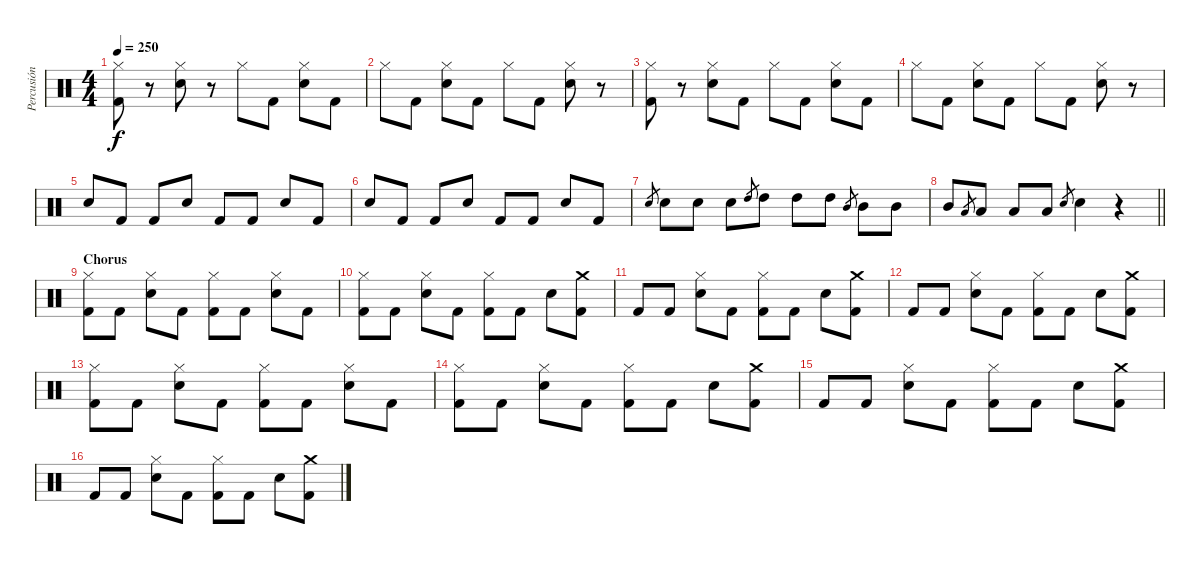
\track ("Percusión" "Percusión") {instrument percussion}
\staff {score}
\articulation defaults
\ts (4 4)
\tempo 250
\clef neutral
\ks c
("Hi-Hat (closed)" "Kick (hit) 2").8{dy f} r.8 ("Electric Snare (hit)" "Hi-Hat (closed)").8 r.8 "Hi-Hat (closed)".8 "Kick (hit) 2".8 ("Electric Snare (hit)" "Hi-Hat (closed)").8 "Kick (hit) 2".8 |
"Hi-Hat (closed)".8 "Kick (hit) 2".8 ("Electric Snare (hit)" "Hi-Hat (closed)").8 "Kick (hit) 2".8 "Hi-Hat (closed)".8 "Kick (hit) 2".8 ("Electric Snare (hit)" "Hi-Hat (closed)").8 r.8 |
("Hi-Hat (closed)" "Kick (hit) 2").8 r.8 ("Electric Snare (hit)" "Hi-Hat (closed)").8 "Kick (hit) 2".8 "Hi-Hat (closed)".8 "Kick (hit) 2".8 ("Electric Snare (hit)" "Hi-Hat (closed)").8 "Kick (hit) 2".8 |
"Hi-Hat (closed)".8 "Kick (hit) 2".8 ("Electric Snare (hit)" "Hi-Hat (closed)").8 "Kick (hit) 2".8 "Hi-Hat (closed)".8 "Kick (hit) 2".8 ("Electric Snare (hit)" "Hi-Hat (closed)").8 r.8 |
"Electric Snare (hit)".8 "Kick (hit) 2".8 "Kick (hit) 2".8 "Electric Snare (hit)".8 "Kick (hit) 2".8 "Kick (hit) 2".8 "Electric Snare (hit)".8 "Kick (hit) 2".8 |
"Electric Snare (hit)".8 "Kick (hit) 2".8 "Kick (hit) 2".8 "Electric Snare (hit)".8 "Kick (hit) 2".8 "Kick (hit) 2".8 "Electric Snare (hit)".8 "Kick (hit) 2".8 |
"Electric Snare (hit)".8{gr} "Electric Snare (hit)".8 "Electric Snare (hit)".8 "Electric Snare (hit)".8 "High Tom (hit)".8{gr} "High Tom (hit)".8 "High Tom (hit)".8 "High Tom (hit)".8 "Mid Tom (hit)".8{gr} "Mid Tom (hit)".8 "Mid Tom (hit)".8 |
\barLineRight lightlight "Mid Tom (hit)".8 "Low Tom (hit)".8{gr} "Low Tom (hit)".8 "Low Tom (hit)".8 "Low Tom (hit)".8 "Electric Snare (hit)".8{gr} "Electric Snare (hit)".4
r.4 |
\section ("" "Chorus")
("Hi-Hat (closed)" "Kick (hit) 2").8 "Kick (hit) 2".8 ("Electric Snare (hit)" "Hi-Hat (closed)").8 "Kick (hit) 2".8 ("Hi-Hat (closed)" "Kick (hit) 2").8 "Kick (hit) 2".8 ("Electric Snare (hit)" "Hi-Hat (closed)").8 "Kick (hit) 2".8 |
("Hi-Hat (closed)" "Kick (hit) 2").8 "Kick (hit) 2".8 ("Electric Snare (hit)" "Hi-Hat (closed)").8 "Kick (hit) 2".8 ("Hi-Hat (closed)" "Kick (hit) 2").8 "Kick (hit) 2".8 "Electric Snare (hit)".8 ("Crash medium (hit)" "Kick (hit) 2").8 |
"Kick (hit) 2".8 "Kick (hit) 2".8 ("Electric Snare (hit)" "Hi-Hat (closed)").8 "Kick (hit) 2".8 ("Hi-Hat (closed)" "Kick (hit) 2").8 "Kick (hit) 2".8 "Electric Snare (hit)".8 ("Crash medium (hit)" "Kick (hit) 2").8 |
"Kick (hit) 2".8 "Kick (hit) 2".8 ("Electric Snare (hit)" "Hi-Hat (closed)").8 "Kick (hit) 2".8 ("Hi-Hat (closed)" "Kick (hit) 2").8 "Kick (hit) 2".8 "Electric Snare (hit)".8 ("Crash medium (hit)" "Kick (hit) 2").8 |
("Hi-Hat (closed)" "Kick (hit) 2").8 "Kick (hit) 2".8 ("Electric Snare (hit)" "Hi-Hat (closed)").8 "Kick (hit) 2".8 ("Hi-Hat (closed)" "Kick (hit) 2").8 "Kick (hit) 2".8 ("Electric Snare (hit)" "Hi-Hat (closed)").8 "Kick (hit) 2".8 |
("Hi-Hat (closed)" "Kick (hit) 2").8 "Kick (hit) 2".8 ("Electric Snare (hit)" "Hi-Hat (closed)").8 "Kick (hit) 2".8 ("Hi-Hat (closed)" "Kick (hit) 2").8 "Kick (hit) 2".8 "Electric Snare (hit)".8 ("Crash medium (hit)" "Kick (hit) 2").8 |
"Kick (hit) 2".8 "Kick (hit) 2".8 ("Electric Snare (hit)" "Hi-Hat (closed)").8 "Kick (hit) 2".8 ("Hi-Hat (closed)" "Kick (hit) 2").8 "Kick (hit) 2".8 "Electric Snare (hit)".8 ("Crash medium (hit)" "Kick (hit) 2").8 |
"Kick (hit) 2".8 "Kick (hit) 2".8 ("Electric Snare (hit)" "Hi-Hat (closed)").8 "Kick (hit) 2".8 ("Hi-Hat (closed)" "Kick (hit) 2").8 "Kick (hit) 2".8 "Electric Snare (hit)".8 ("Crash medium (hit)" "Kick (hit) 2").8
